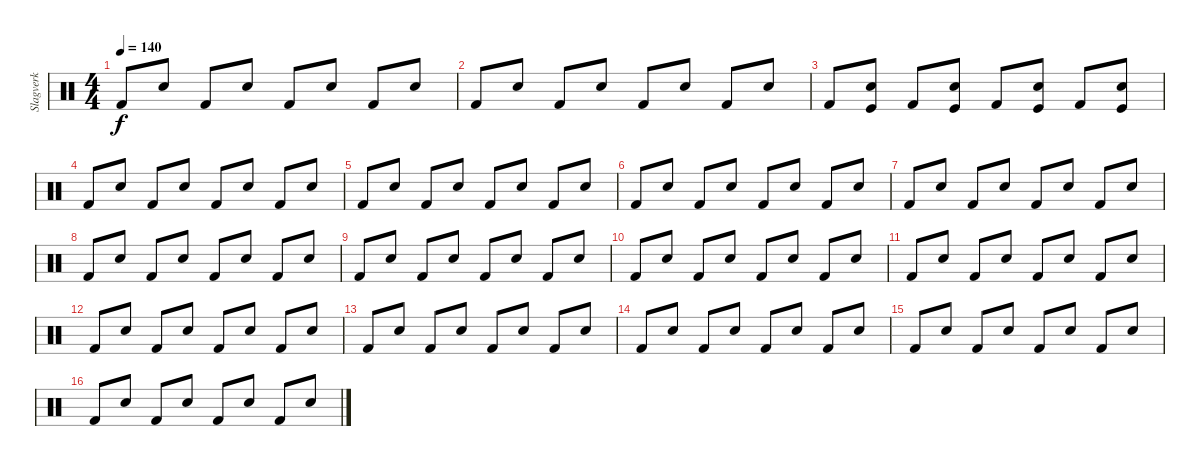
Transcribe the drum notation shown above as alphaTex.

\track ("Slagverk" "Slagverk") {instrument percussion}
\staff {score}
\articulation defaults
\ts (4 4)
\tempo 140
\clef neutral
\ks c "Kick (hit) 2".8{dy f} "Snare (hit) 2".8 "Kick (hit) 2".8 "Snare (hit) 2".8 "Kick (hit) 2".8 "Snare (hit) 2".8 "Kick (hit) 2".8 "Snare (hit) 2".8
|
"Kick (hit) 2".8 "Snare (hit) 2".8 "Kick (hit) 2".8 "Snare (hit) 2".8 "Kick (hit) 2".8 "Snare (hit) 2".8 "Kick (hit) 2".8 "Snare (hit) 2".8 |
"Kick (hit) 2".8 ("Snare (hit) 2" "Kick (hit)").8 "Kick (hit) 2".8 ("Snare (hit) 2" "Kick (hit)").8 "Kick (hit) 2".8 ("Snare (hit) 2" "Kick (hit)").8 "Kick (hit) 2".8 ("Snare (hit) 2" "Kick (hit)").8 |
"Kick (hit) 2".8 "Snare (hit) 2".8 "Kick (hit) 2".8 "Snare (hit) 2".8 "Kick (hit) 2".8 "Snare (hit) 2".8 "Kick (hit) 2".8 "Snare (hit) 2".8 |
"Kick (hit) 2".8 "Snare (hit) 2".8 "Kick (hit) 2".8 "Snare (hit) 2".8 "Kick (hit) 2".8 "Snare (hit) 2".8 "Kick (hit) 2".8 "Snare (hit) 2".8 |
"Kick (hit) 2".8 "Snare (hit) 2".8 "Kick (hit) 2".8 "Snare (hit) 2".8 "Kick (hit) 2".8 "Snare (hit) 2".8 "Kick (hit) 2".8 "Snare (hit) 2".8 |
"Kick (hit) 2".8 "Snare (hit) 2".8 "Kick (hit) 2".8 "Snare (hit) 2".8 "Kick (hit) 2".8 "Snare (hit) 2".8 "Kick (hit) 2".8 "Snare (hit) 2".8 |
"Kick (hit) 2".8 "Snare (hit) 2".8 "Kick (hit) 2".8 "Snare (hit) 2".8 "Kick (hit) 2".8 "Snare (hit) 2".8 "Kick (hit) 2".8 "Snare (hit) 2".8 |
"Kick (hit) 2".8 "Snare (hit) 2".8 "Kick (hit) 2".8 "Snare (hit) 2".8 "Kick (hit) 2".8 "Snare (hit) 2".8 "Kick (hit) 2".8 "Snare (hit) 2".8 |
"Kick (hit) 2".8 "Snare (hit) 2".8 "Kick (hit) 2".8 "Snare (hit) 2".8 "Kick (hit) 2".8 "Snare (hit) 2".8 "Kick (hit) 2".8 "Snare (hit) 2".8 |
"Kick (hit) 2".8 "Snare (hit) 2".8 "Kick (hit) 2".8 "Snare (hit) 2".8 "Kick (hit) 2".8 "Snare (hit) 2".8 "Kick (hit) 2".8 "Snare (hit) 2".8 |
"Kick (hit) 2".8 "Snare (hit) 2".8 "Kick (hit) 2".8 "Snare (hit) 2".8 "Kick (hit) 2".8 "Snare (hit) 2".8 "Kick (hit) 2".8 "Snare (hit) 2".8 |
"Kick (hit) 2".8 "Snare (hit) 2".8 "Kick (hit) 2".8 "Snare (hit) 2".8 "Kick (hit) 2".8 "Snare (hit) 2".8 "Kick (hit) 2".8 "Snare (hit) 2".8 |
"Kick (hit) 2".8 "Snare (hit) 2".8 "Kick (hit) 2".8 "Snare (hit) 2".8 "Kick (hit) 2".8 "Snare (hit) 2".8 "Kick (hit) 2".8 "Snare (hit) 2".8 |
"Kick (hit) 2".8 "Snare (hit) 2".8 "Kick (hit) 2".8 "Snare (hit) 2".8 "Kick (hit) 2".8 "Snare (hit) 2".8 "Kick (hit) 2".8 "Snare (hit) 2".8 |
"Kick (hit) 2".8 "Snare (hit) 2".8 "Kick (hit) 2".8 "Snare (hit) 2".8 "Kick (hit) 2".8 "Snare (hit) 2".8 "Kick (hit) 2".8 "Snare (hit) 2".8
